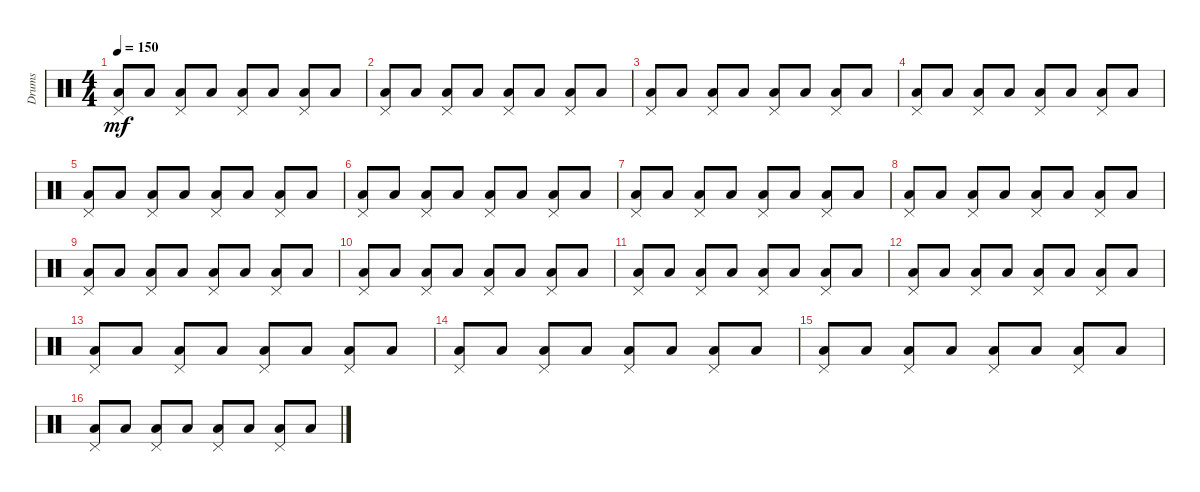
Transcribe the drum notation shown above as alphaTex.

\track ("Drums" "Drums") {instrument percussion}
\staff {score}
\articulation defaults
\ts (4 4)
\tempo 150
\clef neutral
\ks c
("Low Floor Tom (hit)" "Pedal Hi-Hat (hit)").8{dy mf} "Low Floor Tom (hit)".8 ("Low Floor Tom (hit)" "Pedal Hi-Hat (hit)").8 "Low Floor Tom (hit)".8 ("Low Floor Tom (hit)" "Pedal Hi-Hat (hit)").8 "Low Floor Tom (hit)".8 ("Low Floor Tom (hit)" "Pedal Hi-Hat (hit)").8 "Low Floor Tom (hit)".8 |
("Low Floor Tom (hit)" "Pedal Hi-Hat (hit)").8 "Low Floor Tom (hit)".8 ("Low Floor Tom (hit)" "Pedal Hi-Hat (hit)").8 "Low Floor Tom (hit)".8 ("Low Floor Tom (hit)" "Pedal Hi-Hat (hit)").8 "Low Floor Tom (hit)".8 ("Low Floor Tom (hit)" "Pedal Hi-Hat (hit)").8 "Low Floor Tom (hit)".8 |
("Pedal Hi-Hat (hit)" "Low Floor Tom (hit)").8 "Low Floor Tom (hit)".8 ("Pedal Hi-Hat (hit)" "Low Floor Tom (hit)").8 "Low Floor Tom (hit)".8 ("Pedal Hi-Hat (hit)" "Low Floor Tom (hit)").8 "Low Floor Tom (hit)".8 ("Pedal Hi-Hat (hit)" "Low Floor Tom (hit)").8 "Low Floor Tom (hit)".8 |
("Pedal Hi-Hat (hit)" "Low Floor Tom (hit)").8 "Low Floor Tom (hit)".8 ("Pedal Hi-Hat (hit)" "Low Floor Tom (hit)").8 "Low Floor Tom (hit)".8 ("Pedal Hi-Hat (hit)" "Low Floor Tom (hit)").8 "Low Floor Tom (hit)".8 ("Pedal Hi-Hat (hit)" "Low Floor Tom (hit)").8 "Low Floor Tom (hit)".8 |
("Low Floor Tom (hit)" "Pedal Hi-Hat (hit)").8 "Low Floor Tom (hit)".8 ("Low Floor Tom (hit)" "Pedal Hi-Hat (hit)").8 "Low Floor Tom (hit)".8 ("Low Floor Tom (hit)" "Pedal Hi-Hat (hit)").8 "Low Floor Tom (hit)".8 ("Low Floor Tom (hit)" "Pedal Hi-Hat (hit)").8 "Low Floor Tom (hit)".8 |
("Low Floor Tom (hit)" "Pedal Hi-Hat (hit)").8 "Low Floor Tom (hit)".8 ("Low Floor Tom (hit)" "Pedal Hi-Hat (hit)").8 "Low Floor Tom (hit)".8 ("Low Floor Tom (hit)" "Pedal Hi-Hat (hit)").8 "Low Floor Tom (hit)".8 ("Low Floor Tom (hit)" "Pedal Hi-Hat (hit)").8 "Low Floor Tom (hit)".8 |
("Pedal Hi-Hat (hit)" "Low Floor Tom (hit)").8 "Low Floor Tom (hit)".8 ("Pedal Hi-Hat (hit)" "Low Floor Tom (hit)").8 "Low Floor Tom (hit)".8 ("Pedal Hi-Hat (hit)" "Low Floor Tom (hit)").8 "Low Floor Tom (hit)".8 ("Pedal Hi-Hat (hit)" "Low Floor Tom (hit)").8 "Low Floor Tom (hit)".8 |
("Pedal Hi-Hat (hit)" "Low Floor Tom (hit)").8 "Low Floor Tom (hit)".8 ("Pedal Hi-Hat (hit)" "Low Floor Tom (hit)").8 "Low Floor Tom (hit)".8 ("Pedal Hi-Hat (hit)" "Low Floor Tom (hit)").8 "Low Floor Tom (hit)".8 ("Pedal Hi-Hat (hit)" "Low Floor Tom (hit)").8 "Low Floor Tom (hit)".8 |
("Pedal Hi-Hat (hit)" "Low Floor Tom (hit)").8 "Low Floor Tom (hit)".8 ("Pedal Hi-Hat (hit)" "Low Floor Tom (hit)").8 "Low Floor Tom (hit)".8 ("Pedal Hi-Hat (hit)" "Low Floor Tom (hit)").8 "Low Floor Tom (hit)".8 ("Pedal Hi-Hat (hit)" "Low Floor Tom (hit)").8 "Low Floor Tom (hit)".8 |
("Pedal Hi-Hat (hit)" "Low Floor Tom (hit)").8 "Low Floor Tom (hit)".8 ("Pedal Hi-Hat (hit)" "Low Floor Tom (hit)").8 "Low Floor Tom (hit)".8 ("Pedal Hi-Hat (hit)" "Low Floor Tom (hit)").8 "Low Floor Tom (hit)".8 ("Pedal Hi-Hat (hit)" "Low Floor Tom (hit)").8 "Low Floor Tom (hit)".8 |
("Low Floor Tom (hit)" "Pedal Hi-Hat (hit)").8 "Low Floor Tom (hit)".8 ("Low Floor Tom (hit)" "Pedal Hi-Hat (hit)").8 "Low Floor Tom (hit)".8 ("Low Floor Tom (hit)" "Pedal Hi-Hat (hit)").8 "Low Floor Tom (hit)".8 ("Low Floor Tom (hit)" "Pedal Hi-Hat (hit)").8 "Low Floor Tom (hit)".8 |
("Low Floor Tom (hit)" "Pedal Hi-Hat (hit)").8 "Low Floor Tom (hit)".8 ("Low Floor Tom (hit)" "Pedal Hi-Hat (hit)").8 "Low Floor Tom (hit)".8 ("Low Floor Tom (hit)" "Pedal Hi-Hat (hit)").8 "Low Floor Tom (hit)".8 ("Low Floor Tom (hit)" "Pedal Hi-Hat (hit)").8 "Low Floor Tom (hit)".8 |
("Pedal Hi-Hat (hit)" "Low Floor Tom (hit)").8 "Low Floor Tom (hit)".8 ("Pedal Hi-Hat (hit)" "Low Floor Tom (hit)").8 "Low Floor Tom (hit)".8 ("Pedal Hi-Hat (hit)" "Low Floor Tom (hit)").8 "Low Floor Tom (hit)".8 ("Pedal Hi-Hat (hit)" "Low Floor Tom (hit)").8 "Low Floor Tom (hit)".8 |
("Pedal Hi-Hat (hit)" "Low Floor Tom (hit)").8 "Low Floor Tom (hit)".8 ("Pedal Hi-Hat (hit)" "Low Floor Tom (hit)").8 "Low Floor Tom (hit)".8 ("Pedal Hi-Hat (hit)" "Low Floor Tom (hit)").8 "Low Floor Tom (hit)".8 ("Pedal Hi-Hat (hit)" "Low Floor Tom (hit)").8 "Low Floor Tom (hit)".8 |
("Low Floor Tom (hit)" "Pedal Hi-Hat (hit)").8 "Low Floor Tom (hit)".8 ("Low Floor Tom (hit)" "Pedal Hi-Hat (hit)").8 "Low Floor Tom (hit)".8 ("Low Floor Tom (hit)" "Pedal Hi-Hat (hit)").8 "Low Floor Tom (hit)".8 ("Low Floor Tom (hit)" "Pedal Hi-Hat (hit)").8 "Low Floor Tom (hit)".8 |
("Low Floor Tom (hit)" "Pedal Hi-Hat (hit)").8 "Low Floor Tom (hit)".8 ("Low Floor Tom (hit)" "Pedal Hi-Hat (hit)").8 "Low Floor Tom (hit)".8 ("Low Floor Tom (hit)" "Pedal Hi-Hat (hit)").8 "Low Floor Tom (hit)".8 ("Low Floor Tom (hit)" "Pedal Hi-Hat (hit)").8 "Low Floor Tom (hit)".8
